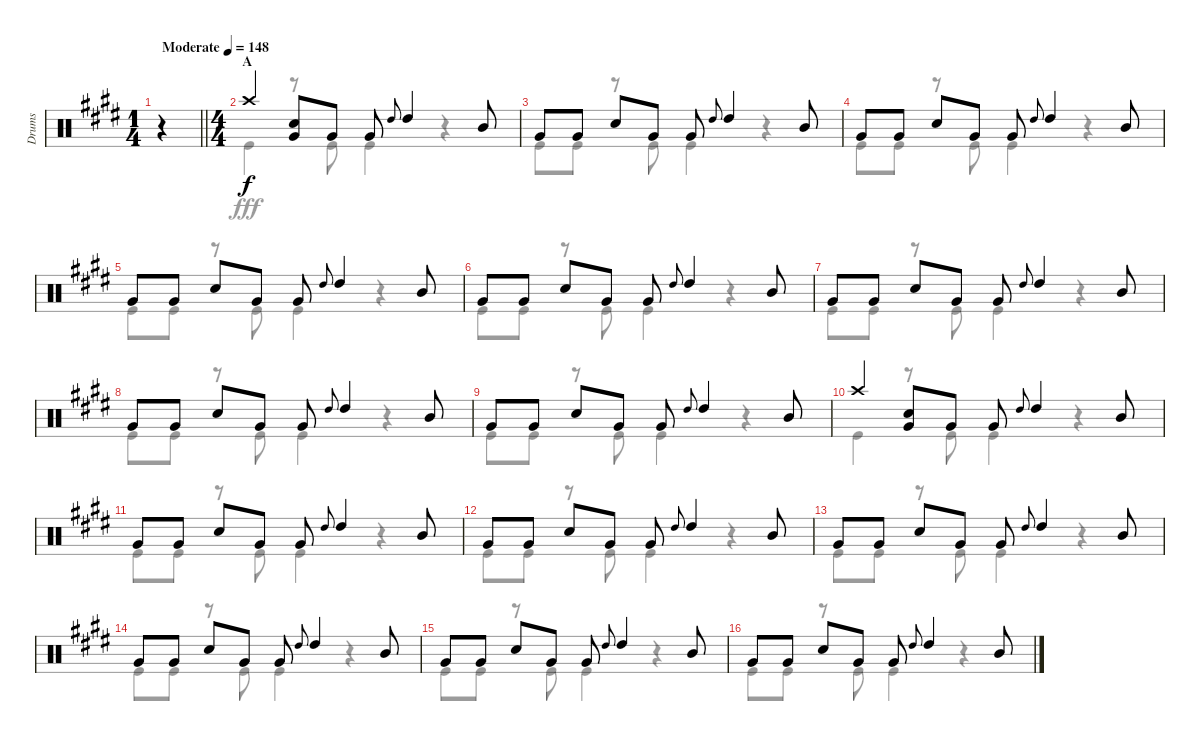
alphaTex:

\track ("Drums" "Drums") {instrument percussion}
\staff {score}
\articulation defaults
\voice
\ts (1 4)
\tempo (148 "Moderate")
\clef neutral
\barLineRight lightlight
\ks e
r.4{dy f} |
\ts (4 4)
\section ("" "A")
"Crash high (hit)".4 ("Snare (hit) 2" "Very Low Tom (hit)").8 "Very Low Tom (hit)".8 "Very Low Tom (hit)".8 "High Tom (hit)".8{gr onbeat} "High Tom (hit)".4 "Mid Tom (hit)".8 |
"Very Low Tom (hit)".8 "Very Low Tom (hit)".8 "Snare (hit) 2".8 "Very Low Tom (hit)".8 "Very Low Tom (hit)".8 "High Tom (hit)".8{gr onbeat} "High Tom (hit)".4 "Mid Tom (hit)".8 |
"Very Low Tom (hit)".8 "Very Low Tom (hit)".8 "Snare (hit) 2".8 "Very Low Tom (hit)".8 "Very Low Tom (hit)".8 "High Tom (hit)".8{gr onbeat} "High Tom (hit)".4 "Mid Tom (hit)".8 |
"Very Low Tom (hit)".8 "Very Low Tom (hit)".8 "Snare (hit) 2".8 "Very Low Tom (hit)".8 "Very Low Tom (hit)".8 "High Tom (hit)".8{gr onbeat} "High Tom (hit)".4 "Mid Tom (hit)".8 |
"Very Low Tom (hit)".8 "Very Low Tom (hit)".8 "Snare (hit) 2".8 "Very Low Tom (hit)".8 "Very Low Tom (hit)".8 "High Tom (hit)".8{gr onbeat} "High Tom (hit)".4 "Mid Tom (hit)".8 |
"Very Low Tom (hit)".8 "Very Low Tom (hit)".8 "Snare (hit) 2".8 "Very Low Tom (hit)".8 "Very Low Tom (hit)".8 "High Tom (hit)".8{gr onbeat} "High Tom (hit)".4 "Mid Tom (hit)".8 |
"Very Low Tom (hit)".8 "Very Low Tom (hit)".8 "Snare (hit) 2".8 "Very Low Tom (hit)".8 "Very Low Tom (hit)".8 "High Tom (hit)".8{gr onbeat} "High Tom (hit)".4 "Mid Tom (hit)".8 |
"Very Low Tom (hit)".8 "Very Low Tom (hit)".8 "Snare (hit) 2".8 "Very Low Tom (hit)".8 "Very Low Tom (hit)".8 "High Tom (hit)".8{gr onbeat} "High Tom (hit)".4 "Mid Tom (hit)".8 |
"Crash high (hit)".4 ("Snare (hit) 2" "Very Low Tom (hit)").8 "Very Low Tom (hit)".8 "Very Low Tom (hit)".8 "High Tom (hit)".8{gr onbeat} "High Tom (hit)".4 "Mid Tom (hit)".8 |
"Very Low Tom (hit)".8 "Very Low Tom (hit)".8 "Snare (hit) 2".8 "Very Low Tom (hit)".8 "Very Low Tom (hit)".8 "High Tom (hit)".8{gr onbeat} "High Tom (hit)".4 "Mid Tom (hit)".8 |
"Very Low Tom (hit)".8 "Very Low Tom (hit)".8 "Snare (hit) 2".8 "Very Low Tom (hit)".8 "Very Low Tom (hit)".8 "High Tom (hit)".8{gr onbeat} "High Tom (hit)".4 "Mid Tom (hit)".8 |
"Very Low Tom (hit)".8 "Very Low Tom (hit)".8 "Snare (hit) 2".8 "Very Low Tom (hit)".8 "Very Low Tom (hit)".8 "High Tom (hit)".8{gr onbeat} "High Tom (hit)".4 "Mid Tom (hit)".8 |
"Very Low Tom (hit)".8 "Very Low Tom (hit)".8 "Snare (hit) 2".8 "Very Low Tom (hit)".8 "Very Low Tom (hit)".8 "High Tom (hit)".8{gr onbeat} "High Tom (hit)".4 "Mid Tom (hit)".8 |
"Very Low Tom (hit)".8 "Very Low Tom (hit)".8 "Snare (hit) 2".8 "Very Low Tom (hit)".8 "Very Low Tom (hit)".8 "High Tom (hit)".8{gr onbeat} "High Tom (hit)".4 "Mid Tom (hit)".8 |
"Very Low Tom (hit)".8 "Very Low Tom (hit)".8 "Snare (hit) 2".8 "Very Low Tom (hit)".8 "Very Low Tom (hit)".8 "High Tom (hit)".8{gr onbeat} "High Tom (hit)".4 "Mid Tom (hit)".8
\voice
\clef neutral
\ottava regular
\simile none
\barLineRight lightlight
\ks e
r.4{dy fff} |
"Kick (hit)".4 r.8 "Kick (hit)".8 "Kick (hit)".4 r.4 |
"Kick (hit)".8 "Kick (hit)".8 r.8 "Kick (hit)".8 "Kick (hit)".4 r.4 |
"Kick (hit)".8 "Kick (hit)".8 r.8 "Kick (hit)".8 "Kick (hit)".4 r.4 |
"Kick (hit)".8 "Kick (hit)".8 r.8 "Kick (hit)".8 "Kick (hit)".4 r.4 |
"Kick (hit)".8 "Kick (hit)".8 r.8 "Kick (hit)".8 "Kick (hit)".4 r.4 |
"Kick (hit)".8 "Kick (hit)".8 r.8 "Kick (hit)".8 "Kick (hit)".4 r.4 |
"Kick (hit)".8 "Kick (hit)".8 r.8 "Kick (hit)".8 "Kick (hit)".4 r.4 |
"Kick (hit)".8 "Kick (hit)".8 r.8 "Kick (hit)".8 "Kick (hit)".4 r.4 |
"Kick (hit)".4 r.8 "Kick (hit)".8 "Kick (hit)".4 r.4 |
"Kick (hit)".8 "Kick (hit)".8 r.8 "Kick (hit)".8 "Kick (hit)".4 r.4 |
"Kick (hit)".8 "Kick (hit)".8 r.8 "Kick (hit)".8 "Kick (hit)".4 r.4 |
"Kick (hit)".8 "Kick (hit)".8 r.8 "Kick (hit)".8 "Kick (hit)".4 r.4 |
"Kick (hit)".8 "Kick (hit)".8 r.8 "Kick (hit)".8 "Kick (hit)".4 r.4 |
"Kick (hit)".8 "Kick (hit)".8 r.8 "Kick (hit)".8 "Kick (hit)".4 r.4 |
"Kick (hit)".8 "Kick (hit)".8 r.8 "Kick (hit)".8 "Kick (hit)".4 r.4
